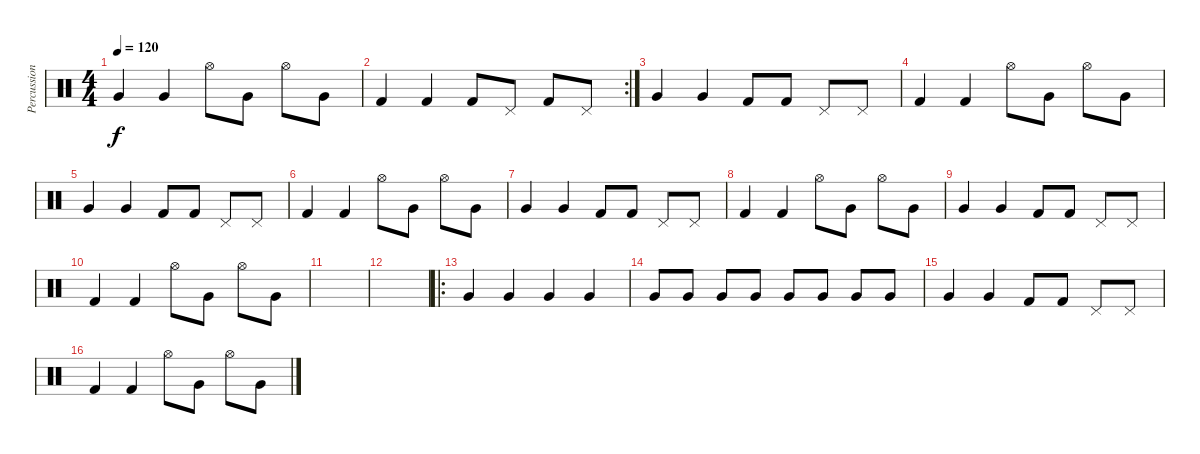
\track ("Percussion" "Percussion") {instrument percussion}
\staff {score}
\articulation defaults
\ts (4 4)
\tempo 120
\clef neutral
\ks c "Very Low Tom (hit)".4{dy f} "Very Low Tom (hit)".4 "Hi-Hat (open)".8 "Very Low Tom (hit)".8 "Hi-Hat (open)".8 "Very Low Tom (hit)".8
|
\rc 2 "Kick (hit) 2".4 "Kick (hit) 2".4 "Kick (hit) 2".8 "Pedal Hi-Hat (hit)".8 "Kick (hit) 2".8 "Pedal Hi-Hat (hit)".8
|
"Very Low Tom (hit)".4 "Very Low Tom (hit)".4 "Kick (hit) 2".8 "Kick (hit) 2".8 "Pedal Hi-Hat (hit)".8 "Pedal Hi-Hat (hit)".8 |
"Kick (hit) 2".4 "Kick (hit) 2".4 "Hi-Hat (open)".8 "Very Low Tom (hit)".8 "Hi-Hat (open)".8 "Very Low Tom (hit)".8 |
"Very Low Tom (hit)".4 "Very Low Tom (hit)".4 "Kick (hit) 2".8 "Kick (hit) 2".8 "Pedal Hi-Hat (hit)".8 "Pedal Hi-Hat (hit)".8 |
"Kick (hit) 2".4 "Kick (hit) 2".4 "Hi-Hat (open)".8 "Very Low Tom (hit)".8 "Hi-Hat (open)".8 "Very Low Tom (hit)".8 |
"Very Low Tom (hit)".4 "Very Low Tom (hit)".4 "Kick (hit) 2".8 "Kick (hit) 2".8 "Pedal Hi-Hat (hit)".8 "Pedal Hi-Hat (hit)".8 |
"Kick (hit) 2".4 "Kick (hit) 2".4 "Hi-Hat (open)".8 "Very Low Tom (hit)".8 "Hi-Hat (open)".8 "Very Low Tom (hit)".8 |
"Very Low Tom (hit)".4 "Very Low Tom (hit)".4 "Kick (hit) 2".8 "Kick (hit) 2".8 "Pedal Hi-Hat (hit)".8 "Pedal Hi-Hat (hit)".8 |
"Kick (hit) 2".4 "Kick (hit) 2".4 "Hi-Hat (open)".8 "Very Low Tom (hit)".8 "Hi-Hat (open)".8 "Very Low Tom (hit)".8 |
|
|
\ro "Very Low Tom (hit)".4 "Very Low Tom (hit)".4 "Very Low Tom (hit)".4 "Very Low Tom (hit)".4
|
"Very Low Tom (hit)".8 "Very Low Tom (hit)".8 "Very Low Tom (hit)".8 "Very Low Tom (hit)".8 "Very Low Tom (hit)".8 "Very Low Tom (hit)".8 "Very Low Tom (hit)".8 "Very Low Tom (hit)".8 |
"Very Low Tom (hit)".4 "Very Low Tom (hit)".4 "Kick (hit) 2".8 "Kick (hit) 2".8 "Pedal Hi-Hat (hit)".8 "Pedal Hi-Hat (hit)".8 |
"Kick (hit) 2".4 "Kick (hit) 2".4 "Hi-Hat (open)".8 "Very Low Tom (hit)".8 "Hi-Hat (open)".8 "Very Low Tom (hit)".8
